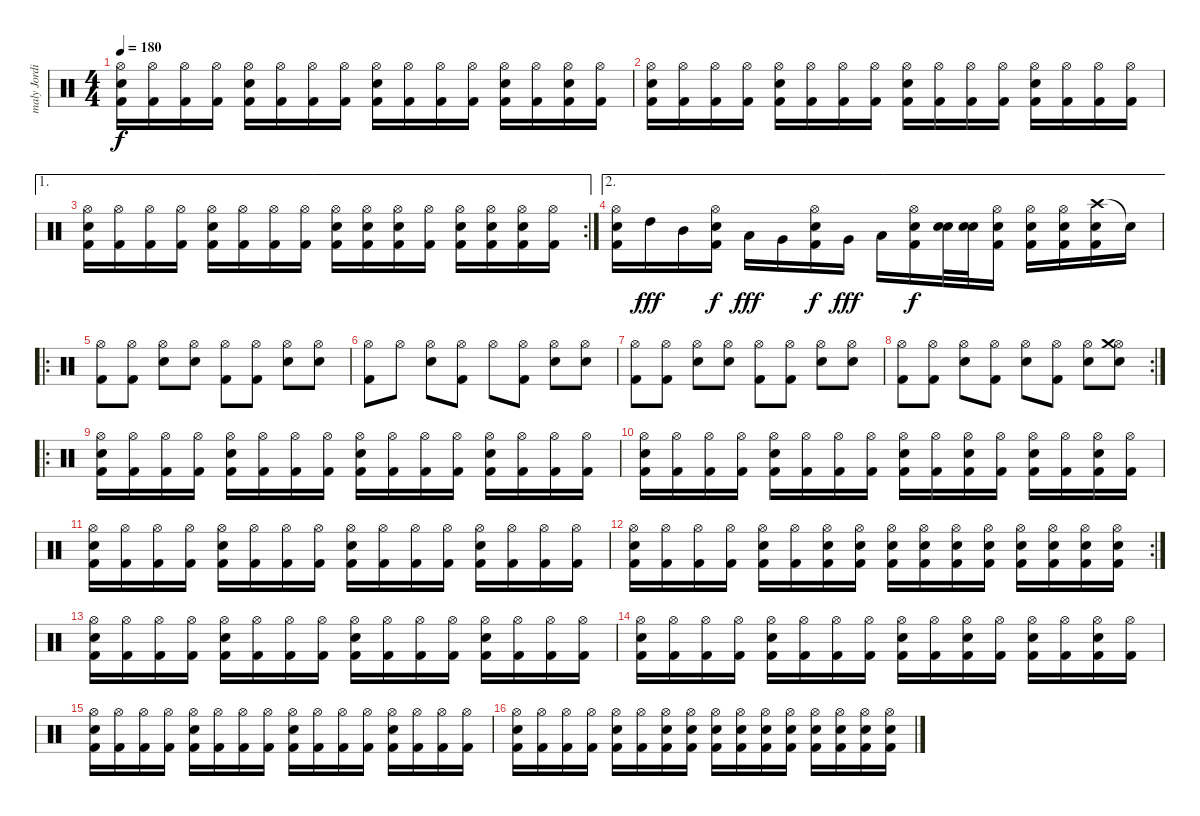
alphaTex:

\track ("maly Jordison " "maly Jordi") {instrument percussion}
\staff {score}
\articulation defaults
\ts (4 4)
\tempo 180
\clef neutral
\ks c
("Hi-Hat (open)" "Electric Snare (hit)" "Kick (hit) 2").16{dy f} ("Hi-Hat (open)" "Kick (hit) 2").16 ("Hi-Hat (open)" "Kick (hit) 2").16 ("Hi-Hat (open)" "Kick (hit) 2").16 ("Hi-Hat (open)" "Electric Snare (hit)" "Kick (hit) 2").16 ("Hi-Hat (open)" "Kick (hit) 2").16 ("Hi-Hat (open)" "Kick (hit) 2").16 ("Hi-Hat (open)" "Kick (hit) 2").16 ("Hi-Hat (open)" "Electric Snare (hit)" "Kick (hit) 2").16 ("Hi-Hat (open)" "Kick (hit) 2").16 ("Hi-Hat (open)" "Kick (hit) 2").16 ("Hi-Hat (open)" "Kick (hit) 2").16 ("Hi-Hat (open)" "Electric Snare (hit)" "Kick (hit) 2").16 ("Hi-Hat (open)" "Kick (hit) 2").16 ("Hi-Hat (open)" "Electric Snare (hit)" "Kick (hit) 2").16 ("Hi-Hat (open)" "Kick (hit) 2").16 |
("Hi-Hat (open)" "Electric Snare (hit)" "Kick (hit) 2").16 ("Hi-Hat (open)" "Kick (hit) 2").16 ("Hi-Hat (open)" "Kick (hit) 2").16 ("Hi-Hat (open)" "Kick (hit) 2").16 ("Hi-Hat (open)" "Electric Snare (hit)" "Kick (hit) 2").16 ("Hi-Hat (open)" "Kick (hit) 2").16 ("Hi-Hat (open)" "Kick (hit) 2").16 ("Hi-Hat (open)" "Kick (hit) 2").16 ("Hi-Hat (open)" "Electric Snare (hit)" "Kick (hit) 2").16 ("Hi-Hat (open)" "Kick (hit) 2").16 ("Hi-Hat (open)" "Kick (hit) 2").16 ("Hi-Hat (open)" "Kick (hit) 2").16 ("Hi-Hat (open)" "Electric Snare (hit)" "Kick (hit) 2").16 ("Hi-Hat (open)" "Kick (hit) 2").16 ("Hi-Hat (open)" "Kick (hit) 2").16 ("Hi-Hat (open)" "Kick (hit) 2").16 |
\ae 1
\rc 2
("Hi-Hat (open)" "Electric Snare (hit)" "Kick (hit) 2").16 ("Hi-Hat (open)" "Kick (hit) 2").16 ("Hi-Hat (open)" "Kick (hit) 2").16 ("Hi-Hat (open)" "Kick (hit) 2").16 ("Hi-Hat (open)" "Electric Snare (hit)" "Kick (hit) 2").16 ("Hi-Hat (open)" "Kick (hit) 2").16 ("Hi-Hat (open)" "Kick (hit) 2").16 ("Hi-Hat (open)" "Kick (hit) 2").16 ("Hi-Hat (open)" "Electric Snare (hit)" "Kick (hit) 2").16 ("Hi-Hat (open)" "Electric Snare (hit)" "Kick (hit) 2").16 ("Hi-Hat (open)" "Electric Snare (hit)" "Kick (hit) 2").16 ("Hi-Hat (open)" "Kick (hit) 2").16 ("Hi-Hat (open)" "Electric Snare (hit)" "Kick (hit) 2").16 ("Hi-Hat (open)" "Electric Snare (hit)" "Kick (hit) 2").16 ("Hi-Hat (open)" "Electric Snare (hit)" "Kick (hit) 2").16 ("Hi-Hat (open)" "Kick (hit) 2").16 |
\ae 2
("Hi-Hat (open)" "Electric Snare (hit)" "Kick (hit) 2").16 "High Tom (hit)".16{dy fff} "Mid Tom (hit)".16 ("Hi-Hat (open)" "Electric Snare (hit)" "Kick (hit) 2").16{dy f} "Low Tom (hit)".16{dy fff} "Very Low Tom (hit)".16 ("Hi-Hat (open)" "Electric Snare (hit)" "Kick (hit) 2").16{dy f} "Very Low Tom (hit)".16{dy fff} "Low Floor Tom (hit)".16 ("Hi-Hat (open)" "Electric Snare (hit)" "Kick (hit) 2").16{dy f} ("Electric Snare (hit)" "Electric Snare (hit)").32 ("Electric Snare (hit)" "Electric Snare (hit)").32 ("Hi-Hat (open)" "Electric Snare (hit)" "Kick (hit) 2").16 ("Hi-Hat (open)" "Electric Snare (hit)" "Kick (hit) 2").16 ("Hi-Hat (open)" "Electric Snare (hit)" "Kick (hit) 2").16 ("Crash high (hit)" "Electric Snare (hit)" "Kick (hit) 2").16 "Snare (hit)"{t}.16 |
\ro
("Hi-Hat (open)" "Kick (hit) 2").8 ("Hi-Hat (open)" "Kick (hit) 2").8 ("Hi-Hat (open)" "Electric Snare (hit)").8 ("Hi-Hat (open)" "Electric Snare (hit)").8 ("Hi-Hat (open)" "Kick (hit) 2").8 ("Hi-Hat (open)" "Kick (hit) 2").8 ("Hi-Hat (open)" "Electric Snare (hit)").8 ("Hi-Hat (open)" "Electric Snare (hit)").8 |
("Hi-Hat (open)" "Kick (hit) 2").8 "Hi-Hat (open)".8 ("Hi-Hat (open)" "Electric Snare (hit)").8 ("Hi-Hat (open)" "Kick (hit) 2").8 "Hi-Hat (open)".8 ("Hi-Hat (open)" "Kick (hit) 2").8 ("Hi-Hat (open)" "Electric Snare (hit)").8 ("Hi-Hat (open)" "Electric Snare (hit)").8 |
("Hi-Hat (open)" "Kick (hit) 2").8 ("Hi-Hat (open)" "Kick (hit) 2").8 ("Hi-Hat (open)" "Electric Snare (hit)").8 ("Hi-Hat (open)" "Electric Snare (hit)").8 ("Hi-Hat (open)" "Kick (hit) 2").8 ("Hi-Hat (open)" "Kick (hit) 2").8 ("Hi-Hat (open)" "Electric Snare (hit)").8 ("Hi-Hat (open)" "Electric Snare (hit)").8 |
\rc 2
("Hi-Hat (open)" "Kick (hit) 2").8 ("Hi-Hat (open)" "Kick (hit) 2").8 ("Hi-Hat (open)" "Electric Snare (hit)").8 ("Hi-Hat (open)" "Kick (hit) 2").8 ("Hi-Hat (open)" "Electric Snare (hit)").8 ("Hi-Hat (open)" "Kick (hit) 2").8 ("Hi-Hat (open)" "Electric Snare (hit)").8 ("Hi-Hat (open)" "Crash medium (hit)" "Electric Snare (hit)").8 |
\ro
("Hi-Hat (open)" "Electric Snare (hit)" "Kick (hit) 2").16 ("Hi-Hat (open)" "Kick (hit) 2").16 ("Hi-Hat (open)" "Kick (hit) 2").16 ("Hi-Hat (open)" "Kick (hit) 2").16 ("Hi-Hat (open)" "Electric Snare (hit)" "Kick (hit) 2").16 ("Hi-Hat (open)" "Kick (hit) 2").16 ("Hi-Hat (open)" "Kick (hit) 2").16 ("Hi-Hat (open)" "Kick (hit) 2").16 ("Hi-Hat (open)" "Electric Snare (hit)" "Kick (hit) 2").16 ("Hi-Hat (open)" "Kick (hit) 2").16 ("Hi-Hat (open)" "Kick (hit) 2").16 ("Hi-Hat (open)" "Kick (hit) 2").16 ("Hi-Hat (open)" "Electric Snare (hit)" "Kick (hit) 2").16 ("Hi-Hat (open)" "Kick (hit) 2").16 ("Hi-Hat (open)" "Kick (hit) 2").16 ("Hi-Hat (open)" "Kick (hit) 2").16 |
("Hi-Hat (open)" "Electric Snare (hit)" "Kick (hit) 2").16 ("Hi-Hat (open)" "Kick (hit) 2").16 ("Hi-Hat (open)" "Kick (hit) 2").16 ("Hi-Hat (open)" "Kick (hit) 2").16 ("Hi-Hat (open)" "Electric Snare (hit)" "Kick (hit) 2").16 ("Hi-Hat (open)" "Kick (hit) 2").16 ("Hi-Hat (open)" "Kick (hit) 2").16 ("Hi-Hat (open)" "Kick (hit) 2").16 ("Hi-Hat (open)" "Electric Snare (hit)" "Kick (hit) 2").16 ("Hi-Hat (open)" "Kick (hit) 2").16 ("Hi-Hat (open)" "Electric Snare (hit)" "Kick (hit) 2").16 ("Hi-Hat (open)" "Kick (hit) 2").16 ("Hi-Hat (open)" "Electric Snare (hit)" "Kick (hit) 2").16 ("Hi-Hat (open)" "Kick (hit) 2").16 ("Hi-Hat (open)" "Electric Snare (hit)" "Kick (hit) 2").16 ("Hi-Hat (open)" "Kick (hit) 2").16 |
("Hi-Hat (open)" "Electric Snare (hit)" "Kick (hit) 2").16 ("Hi-Hat (open)" "Kick (hit) 2").16 ("Hi-Hat (open)" "Kick (hit) 2").16 ("Hi-Hat (open)" "Kick (hit) 2").16 ("Hi-Hat (open)" "Electric Snare (hit)" "Kick (hit) 2").16 ("Hi-Hat (open)" "Kick (hit) 2").16 ("Hi-Hat (open)" "Kick (hit) 2").16 ("Hi-Hat (open)" "Kick (hit) 2").16 ("Hi-Hat (open)" "Electric Snare (hit)" "Kick (hit) 2").16 ("Hi-Hat (open)" "Kick (hit) 2").16 ("Hi-Hat (open)" "Kick (hit) 2").16 ("Hi-Hat (open)" "Kick (hit) 2").16 ("Hi-Hat (open)" "Electric Snare (hit)" "Kick (hit) 2").16 ("Hi-Hat (open)" "Kick (hit) 2").16 ("Hi-Hat (open)" "Kick (hit) 2").16 ("Hi-Hat (open)" "Kick (hit) 2").16 |
\rc 2
("Hi-Hat (open)" "Electric Snare (hit)" "Kick (hit) 2").16 ("Hi-Hat (open)" "Kick (hit) 2").16 ("Hi-Hat (open)" "Kick (hit) 2").16 ("Hi-Hat (open)" "Kick (hit) 2").16 ("Hi-Hat (open)" "Electric Snare (hit)" "Kick (hit) 2").16 ("Hi-Hat (open)" "Kick (hit) 2").16 ("Hi-Hat (open)" "Electric Snare (hit)" "Kick (hit) 2").16 ("Hi-Hat (open)" "Electric Snare (hit)" "Kick (hit) 2").16 ("Hi-Hat (open)" "Electric Snare (hit)" "Kick (hit) 2").16 ("Hi-Hat (open)" "Electric Snare (hit)" "Kick (hit) 2").16 ("Hi-Hat (open)" "Electric Snare (hit)" "Kick (hit) 2").16 ("Hi-Hat (open)" "Electric Snare (hit)" "Kick (hit) 2").16 ("Hi-Hat (open)" "Electric Snare (hit)" "Kick (hit) 2").16 ("Hi-Hat (open)" "Electric Snare (hit)" "Kick (hit) 2").16 ("Hi-Hat (open)" "Electric Snare (hit)" "Kick (hit) 2").16 ("Hi-Hat (open)" "Electric Snare (hit)" "Kick (hit) 2").16 |
("Hi-Hat (open)" "Electric Snare (hit)" "Kick (hit) 2").16 ("Hi-Hat (open)" "Kick (hit) 2").16 ("Hi-Hat (open)" "Kick (hit) 2").16 ("Hi-Hat (open)" "Kick (hit) 2").16 ("Hi-Hat (open)" "Electric Snare (hit)" "Kick (hit) 2").16 ("Hi-Hat (open)" "Kick (hit) 2").16 ("Hi-Hat (open)" "Kick (hit) 2").16 ("Hi-Hat (open)" "Kick (hit) 2").16 ("Hi-Hat (open)" "Electric Snare (hit)" "Kick (hit) 2").16 ("Hi-Hat (open)" "Kick (hit) 2").16 ("Hi-Hat (open)" "Kick (hit) 2").16 ("Hi-Hat (open)" "Kick (hit) 2").16 ("Hi-Hat (open)" "Electric Snare (hit)" "Kick (hit) 2").16 ("Hi-Hat (open)" "Kick (hit) 2").16 ("Hi-Hat (open)" "Kick (hit) 2").16 ("Hi-Hat (open)" "Kick (hit) 2").16 |
("Hi-Hat (open)" "Electric Snare (hit)" "Kick (hit) 2").16 ("Hi-Hat (open)" "Kick (hit) 2").16 ("Hi-Hat (open)" "Kick (hit) 2").16 ("Hi-Hat (open)" "Kick (hit) 2").16 ("Hi-Hat (open)" "Electric Snare (hit)" "Kick (hit) 2").16 ("Hi-Hat (open)" "Kick (hit) 2").16 ("Hi-Hat (open)" "Kick (hit) 2").16 ("Hi-Hat (open)" "Kick (hit) 2").16 ("Hi-Hat (open)" "Electric Snare (hit)" "Kick (hit) 2").16 ("Hi-Hat (open)" "Kick (hit) 2").16 ("Hi-Hat (open)" "Electric Snare (hit)" "Kick (hit) 2").16 ("Hi-Hat (open)" "Kick (hit) 2").16 ("Hi-Hat (open)" "Electric Snare (hit)" "Kick (hit) 2").16 ("Hi-Hat (open)" "Kick (hit) 2").16 ("Hi-Hat (open)" "Electric Snare (hit)" "Kick (hit) 2").16 ("Hi-Hat (open)" "Kick (hit) 2").16 |
("Hi-Hat (open)" "Electric Snare (hit)" "Kick (hit) 2").16 ("Hi-Hat (open)" "Kick (hit) 2").16 ("Hi-Hat (open)" "Kick (hit) 2").16 ("Hi-Hat (open)" "Kick (hit) 2").16 ("Hi-Hat (open)" "Electric Snare (hit)" "Kick (hit) 2").16 ("Hi-Hat (open)" "Kick (hit) 2").16 ("Hi-Hat (open)" "Kick (hit) 2").16 ("Hi-Hat (open)" "Kick (hit) 2").16 ("Hi-Hat (open)" "Electric Snare (hit)" "Kick (hit) 2").16 ("Hi-Hat (open)" "Kick (hit) 2").16 ("Hi-Hat (open)" "Kick (hit) 2").16 ("Hi-Hat (open)" "Kick (hit) 2").16 ("Hi-Hat (open)" "Electric Snare (hit)" "Kick (hit) 2").16 ("Hi-Hat (open)" "Kick (hit) 2").16 ("Hi-Hat (open)" "Kick (hit) 2").16 ("Hi-Hat (open)" "Kick (hit) 2").16 |
("Hi-Hat (open)" "Electric Snare (hit)" "Kick (hit) 2").16 ("Hi-Hat (open)" "Kick (hit) 2").16 ("Hi-Hat (open)" "Kick (hit) 2").16 ("Hi-Hat (open)" "Kick (hit) 2").16 ("Hi-Hat (open)" "Electric Snare (hit)" "Kick (hit) 2").16 ("Hi-Hat (open)" "Kick (hit) 2").16 ("Hi-Hat (open)" "Electric Snare (hit)" "Kick (hit) 2").16 ("Hi-Hat (open)" "Electric Snare (hit)" "Kick (hit) 2").16 ("Hi-Hat (open)" "Electric Snare (hit)" "Kick (hit) 2").16 ("Hi-Hat (open)" "Electric Snare (hit)" "Kick (hit) 2").16 ("Hi-Hat (open)" "Electric Snare (hit)" "Kick (hit) 2").16 ("Hi-Hat (open)" "Electric Snare (hit)" "Kick (hit) 2").16 ("Hi-Hat (open)" "Electric Snare (hit)" "Kick (hit) 2").16 ("Hi-Hat (open)" "Electric Snare (hit)" "Kick (hit) 2").16 ("Hi-Hat (open)" "Electric Snare (hit)" "Kick (hit) 2").16 ("Hi-Hat (open)" "Electric Snare (hit)" "Kick (hit) 2").16
